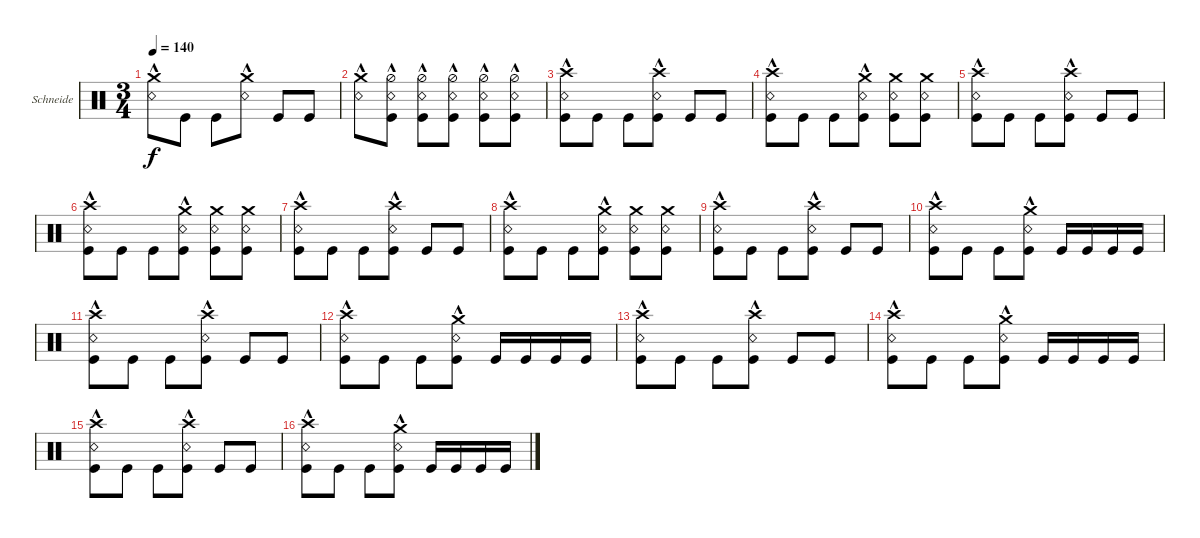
\bracketExtendMode groupsimilarinstruments
\firstSystemTrackNameOrientation horizontal
\otherSystemsTrackNameOrientation horizontal
\track ("Christoph \"Doom\" Schneider" "Schneide") {instrument percussion}
\staff {score}
\articulation defaults
\ts (3 4)
\tempo 140
\clef neutral
\ks c
("Crash medium (hit)" "Snare (rim shot)"{hac}).8{dy f} "Kick (hit)".8 "Kick (hit)".8 ("Crash medium (hit)" "Snare (rim shot)"{hac}).8 "Kick (hit)".8 "Kick (hit)".8 |
("Crash medium (hit)" "Snare (rim shot)"{hac}).8 ("Hi-Hat (half)" "Kick (hit)" "Snare (rim shot)"{hac}).8 ("Hi-Hat (half)" "Kick (hit)" "Snare (rim shot)"{hac}).8 ("Hi-Hat (half)" "Kick (hit)" "Snare (rim shot)"{hac}).8 ("Hi-Hat (half)" "Kick (hit)" "Snare (rim shot)"{hac}).8 ("Hi-Hat (half)" "Kick (hit)" "Snare (rim shot)"{hac}).8 |
("Crash high (hit)" "Kick (hit)" "Snare (rim shot)"{hac}).8 "Kick (hit)".8 "Kick (hit)".8 ("Crash high (hit)" "Kick (hit)" "Snare (rim shot)"{hac}).8 "Kick (hit)".8 "Kick (hit)".8 |
("Crash high (hit)" "Kick (hit)" "Snare (rim shot)"{hac}).8 "Kick (hit)".8 "Kick (hit)".8 ("Crash medium (hit)" "Kick (hit)" "Snare (rim shot)"{hac}).8 ("Crash medium (hit)" "Kick (hit)" "Snare (rim shot)").8 ("Crash medium (hit)" "Kick (hit)" "Snare (rim shot)").8 |
("Crash high (hit)" "Kick (hit)" "Snare (rim shot)"{hac}).8 "Kick (hit)".8 "Kick (hit)".8 ("Crash high (hit)" "Kick (hit)" "Snare (rim shot)"{hac}).8 "Kick (hit)".8 "Kick (hit)".8 |
("Crash high (hit)" "Kick (hit)" "Snare (rim shot)"{hac}).8 "Kick (hit)".8 "Kick (hit)".8 ("Crash medium (hit)" "Kick (hit)" "Snare (rim shot)"{hac}).8 ("Crash medium (hit)" "Kick (hit)" "Snare (rim shot)").8 ("Crash medium (hit)" "Kick (hit)" "Snare (rim shot)").8 |
("Crash high (hit)" "Kick (hit)" "Snare (rim shot)"{hac}).8 "Kick (hit)".8 "Kick (hit)".8 ("Crash high (hit)" "Kick (hit)" "Snare (rim shot)"{hac}).8 "Kick (hit)".8 "Kick (hit)".8 |
("Crash high (hit)" "Kick (hit)" "Snare (rim shot)"{hac}).8 "Kick (hit)".8 "Kick (hit)".8 ("Crash medium (hit)" "Kick (hit)" "Snare (rim shot)"{hac}).8 ("Crash medium (hit)" "Kick (hit)" "Snare (rim shot)").8 ("Crash medium (hit)" "Kick (hit)" "Snare (rim shot)").8 |
("Crash high (hit)" "Kick (hit)" "Snare (rim shot)"{hac}).8 "Kick (hit)".8 "Kick (hit)".8 ("Crash high (hit)" "Kick (hit)" "Snare (rim shot)"{hac}).8 "Kick (hit)".8 "Kick (hit)".8 |
("Crash high (hit)" "Kick (hit)" "Snare (rim shot)"{hac}).8 "Kick (hit)".8 "Kick (hit)".8 ("Crash medium (hit)" "Kick (hit)" "Snare (rim shot)"{hac}).8 "Kick (hit)".16 "Kick (hit)".16 "Kick (hit)".16 "Kick (hit)".16 |
("Crash high (hit)" "Kick (hit)" "Snare (rim shot)"{hac}).8 "Kick (hit)".8 "Kick (hit)".8 ("Crash high (hit)" "Kick (hit)" "Snare (rim shot)"{hac}).8 "Kick (hit)".8 "Kick (hit)".8 |
("Crash high (hit)" "Kick (hit)" "Snare (rim shot)"{hac}).8 "Kick (hit)".8 "Kick (hit)".8 ("Crash medium (hit)" "Kick (hit)" "Snare (rim shot)"{hac}).8 "Kick (hit)".16 "Kick (hit)".16 "Kick (hit)".16 "Kick (hit)".16 |
("Crash high (hit)" "Kick (hit)" "Snare (rim shot)"{hac}).8 "Kick (hit)".8 "Kick (hit)".8 ("Crash high (hit)" "Kick (hit)" "Snare (rim shot)"{hac}).8 "Kick (hit)".8 "Kick (hit)".8 |
("Crash high (hit)" "Kick (hit)" "Snare (rim shot)"{hac}).8 "Kick (hit)".8 "Kick (hit)".8 ("Crash medium (hit)" "Kick (hit)" "Snare (rim shot)"{hac}).8 "Kick (hit)".16 "Kick (hit)".16 "Kick (hit)".16 "Kick (hit)".16 |
("Crash high (hit)" "Kick (hit)" "Snare (rim shot)"{hac}).8 "Kick (hit)".8 "Kick (hit)".8 ("Crash high (hit)" "Kick (hit)" "Snare (rim shot)"{hac}).8 "Kick (hit)".8 "Kick (hit)".8 |
("Crash high (hit)" "Kick (hit)" "Snare (rim shot)"{hac}).8 "Kick (hit)".8 "Kick (hit)".8 ("Crash medium (hit)" "Kick (hit)" "Snare (rim shot)"{hac}).8 "Kick (hit)".16 "Kick (hit)".16 "Kick (hit)".16 "Kick (hit)".16
